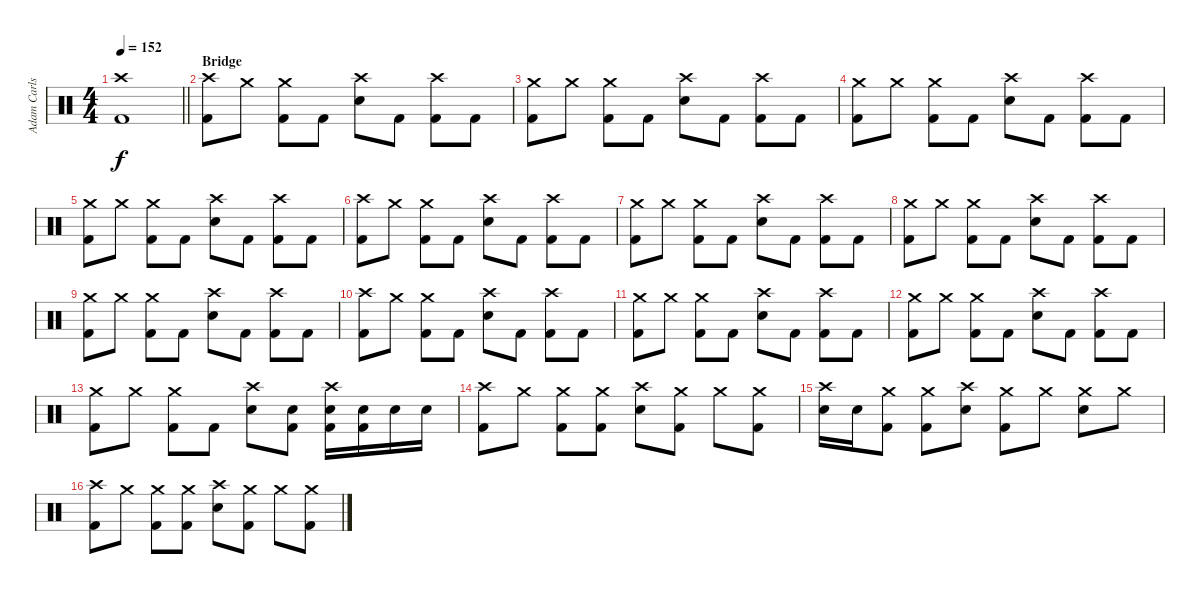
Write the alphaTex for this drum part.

\track ("Adam Carlson" "Adam Carls") {instrument percussion}
\staff {score}
\articulation defaults
\ts (4 4)
\tempo 152
\clef neutral
\barLineRight lightlight
\ks c
("Crash high (hit)" "Kick (hit) 2").1{dy f} |
\section ("" "Bridge")
("Crash high (hit)" "Kick (hit) 2").8 "Crash medium (hit)".8 ("Crash medium (hit)" "Kick (hit) 2").8 "Kick (hit) 2".8 ("Electric Snare (hit)" "Crash high (hit)").8 "Kick (hit) 2".8 ("Kick (hit) 2" "Crash high (hit)").8 "Kick (hit) 2".8 |
("Crash medium (hit)" "Kick (hit) 2").8 "Crash medium (hit)".8 ("Crash medium (hit)" "Kick (hit) 2").8 "Kick (hit) 2".8 ("Electric Snare (hit)" "Crash high (hit)").8 "Kick (hit) 2".8 ("Kick (hit) 2" "Crash high (hit)").8 "Kick (hit) 2".8 |
("Crash medium (hit)" "Kick (hit) 2").8 "Crash medium (hit)".8 ("Crash medium (hit)" "Kick (hit) 2").8 "Kick (hit) 2".8 ("Electric Snare (hit)" "Crash high (hit)").8 "Kick (hit) 2".8 ("Kick (hit) 2" "Crash high (hit)").8 "Kick (hit) 2".8 |
("Crash medium (hit)" "Kick (hit) 2").8 "Crash medium (hit)".8 ("Crash medium (hit)" "Kick (hit) 2").8 "Kick (hit) 2".8 ("Electric Snare (hit)" "Crash high (hit)").8 "Kick (hit) 2".8 ("Kick (hit) 2" "Crash high (hit)").8 "Kick (hit) 2".8 |
("Crash high (hit)" "Kick (hit) 2").8 "Crash medium (hit)".8 ("Crash medium (hit)" "Kick (hit) 2").8 "Kick (hit) 2".8 ("Electric Snare (hit)" "Crash high (hit)").8 "Kick (hit) 2".8 ("Kick (hit) 2" "Crash high (hit)").8 "Kick (hit) 2".8 |
("Crash medium (hit)" "Kick (hit) 2").8 "Crash medium (hit)".8 ("Crash medium (hit)" "Kick (hit) 2").8 "Kick (hit) 2".8 ("Electric Snare (hit)" "Crash high (hit)").8 "Kick (hit) 2".8 ("Kick (hit) 2" "Crash high (hit)").8 "Kick (hit) 2".8 |
("Crash medium (hit)" "Kick (hit) 2").8 "Crash medium (hit)".8 ("Crash medium (hit)" "Kick (hit) 2").8 "Kick (hit) 2".8 ("Electric Snare (hit)" "Crash high (hit)").8 "Kick (hit) 2".8 ("Kick (hit) 2" "Crash high (hit)").8 "Kick (hit) 2".8 |
("Crash medium (hit)" "Kick (hit) 2").8 "Crash medium (hit)".8 ("Crash medium (hit)" "Kick (hit) 2").8 "Kick (hit) 2".8 ("Electric Snare (hit)" "Crash high (hit)").8 "Kick (hit) 2".8 ("Kick (hit) 2" "Crash high (hit)").8 "Kick (hit) 2".8 |
("Crash high (hit)" "Kick (hit) 2").8 "Crash medium (hit)".8 ("Crash medium (hit)" "Kick (hit) 2").8 "Kick (hit) 2".8 ("Electric Snare (hit)" "Crash high (hit)").8 "Kick (hit) 2".8 ("Kick (hit) 2" "Crash high (hit)").8 "Kick (hit) 2".8 |
("Crash medium (hit)" "Kick (hit) 2").8 "Crash medium (hit)".8 ("Crash medium (hit)" "Kick (hit) 2").8 "Kick (hit) 2".8 ("Electric Snare (hit)" "Crash high (hit)").8 "Kick (hit) 2".8 ("Kick (hit) 2" "Crash high (hit)").8 "Kick (hit) 2".8 |
("Crash medium (hit)" "Kick (hit) 2").8 "Crash medium (hit)".8 ("Crash medium (hit)" "Kick (hit) 2").8 "Kick (hit) 2".8 ("Electric Snare (hit)" "Crash high (hit)").8 "Kick (hit) 2".8 ("Kick (hit) 2" "Crash high (hit)").8 "Kick (hit) 2".8 |
("Crash medium (hit)" "Kick (hit) 2").8 "Crash medium (hit)".8 ("Crash medium (hit)" "Kick (hit) 2").8 "Kick (hit) 2".8 ("Electric Snare (hit)" "Crash high (hit)").8 ("Kick (hit) 2" "Electric Snare (hit)").8 ("Kick (hit) 2" "Crash high (hit)" "Electric Snare (hit)").16 ("Kick (hit) 2" "Electric Snare (hit)").16 "Electric Snare (hit)".16 "Electric Snare (hit)".16 |
("Crash high (hit)" "Kick (hit) 2").8 "Crash medium (hit)".8 ("Crash medium (hit)" "Kick (hit) 2").8 ("Kick (hit) 2" "Crash medium (hit)").8 ("Electric Snare (hit)" "Crash high (hit)").8 ("Crash medium (hit)" "Kick (hit) 2").8 "Crash medium (hit)".8 ("Crash medium (hit)" "Kick (hit) 2").8 |
("Crash high (hit)" "Electric Snare (hit)").16 "Electric Snare (hit)".16 ("Crash medium (hit)" "Kick (hit) 2").8 ("Crash medium (hit)" "Kick (hit) 2").8 ("Electric Snare (hit)" "Crash high (hit)").8 ("Crash medium (hit)" "Kick (hit) 2").8 "Crash medium (hit)".8 ("Crash medium (hit)" "Electric Snare (hit)").8 "Crash medium (hit)".8 |
("Crash high (hit)" "Kick (hit) 2").8 "Crash medium (hit)".8 ("Crash medium (hit)" "Kick (hit) 2").8 ("Kick (hit) 2" "Crash medium (hit)").8 ("Electric Snare (hit)" "Crash high (hit)").8 ("Crash medium (hit)" "Kick (hit) 2").8 "Crash medium (hit)".8 ("Crash medium (hit)" "Kick (hit) 2").8
